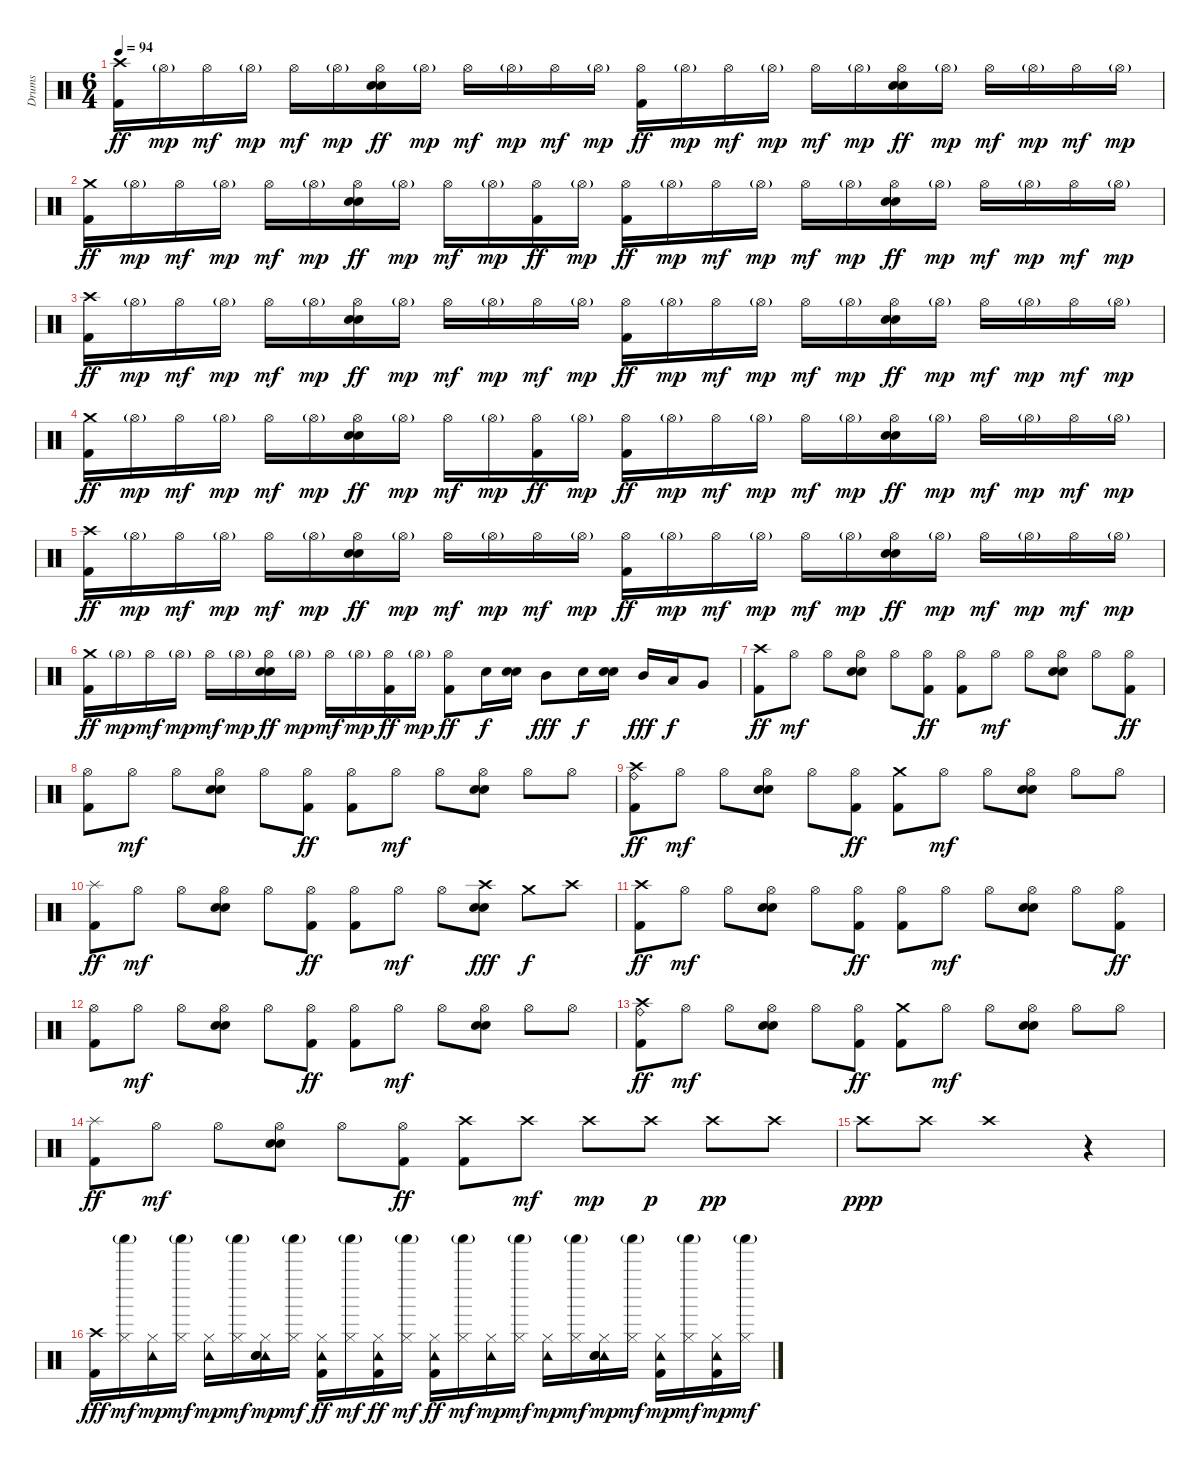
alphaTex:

\track ("Drums" "Drums") {instrument percussion}
\staff {score}
\articulation defaults
\ts (6 4)
\tempo 94
\clef neutral
\ks c
("Crash high (hit)" "Kick (hit) 2").16{dy ff} "Hi-Hat (open)"{g}.16{dy mp} "Hi-Hat (open)".16{dy mf} "Hi-Hat (open)"{g}.16{dy mp} "Hi-Hat (open)".16{dy mf} "Hi-Hat (open)"{g}.16{dy mp} ("Hi-Hat (open)" "Electric Snare (hit)" "Metronome (bell)").16{dy ff} "Hi-Hat (open)"{g}.16{dy mp} "Hi-Hat (open)".16{dy mf} "Hi-Hat (open)"{g}.16{dy mp} "Hi-Hat (open)".16{dy mf} "Hi-Hat (open)"{g}.16{dy mp} ("Hi-Hat (open)" "Kick (hit) 2").16{dy ff} "Hi-Hat (open)"{g}.16{dy mp} "Hi-Hat (open)".16{dy mf} "Hi-Hat (open)"{g}.16{dy mp} "Hi-Hat (open)".16{dy mf} "Hi-Hat (open)"{g}.16{dy mp} ("Hi-Hat (open)" "Electric Snare (hit)" "Metronome (bell)").16{dy ff} "Hi-Hat (open)"{g}.16{dy mp} "Hi-Hat (open)".16{dy mf} "Hi-Hat (open)"{g}.16{dy mp} "Hi-Hat (open)".16{dy mf} "Hi-Hat (open)"{g}.16{dy mp} |
("Crash medium (hit)" "Kick (hit) 2").16{dy ff} "Hi-Hat (open)"{g}.16{dy mp} "Hi-Hat (open)".16{dy mf} "Hi-Hat (open)"{g}.16{dy mp} "Hi-Hat (open)".16{dy mf} "Hi-Hat (open)"{g}.16{dy mp} ("Hi-Hat (open)" "Electric Snare (hit)" "Metronome (bell)").16{dy ff} "Hi-Hat (open)"{g}.16{dy mp} "Hi-Hat (open)".16{dy mf} "Hi-Hat (open)"{g}.16{dy mp} ("Hi-Hat (open)" "Kick (hit) 2").16{dy ff} "Hi-Hat (open)"{g}.16{dy mp} ("Hi-Hat (open)" "Kick (hit) 2").16{dy ff} "Hi-Hat (open)"{g}.16{dy mp} "Hi-Hat (open)".16{dy mf} "Hi-Hat (open)"{g}.16{dy mp} "Hi-Hat (open)".16{dy mf} "Hi-Hat (open)"{g}.16{dy mp} ("Hi-Hat (open)" "Electric Snare (hit)" "Metronome (bell)").16{dy ff} "Hi-Hat (open)"{g}.16{dy mp} "Hi-Hat (open)".16{dy mf} "Hi-Hat (open)"{g}.16{dy mp} "Hi-Hat (open)".16{dy mf} "Hi-Hat (open)"{g}.16{dy mp} |
("Crash high (hit)" "Kick (hit) 2").16{dy ff} "Hi-Hat (open)"{g}.16{dy mp} "Hi-Hat (open)".16{dy mf} "Hi-Hat (open)"{g}.16{dy mp} "Hi-Hat (open)".16{dy mf} "Hi-Hat (open)"{g}.16{dy mp} ("Hi-Hat (open)" "Electric Snare (hit)" "Metronome (bell)").16{dy ff} "Hi-Hat (open)"{g}.16{dy mp} "Hi-Hat (open)".16{dy mf} "Hi-Hat (open)"{g}.16{dy mp} "Hi-Hat (open)".16{dy mf} "Hi-Hat (open)"{g}.16{dy mp} ("Hi-Hat (open)" "Kick (hit) 2").16{dy ff} "Hi-Hat (open)"{g}.16{dy mp} "Hi-Hat (open)".16{dy mf} "Hi-Hat (open)"{g}.16{dy mp} "Hi-Hat (open)".16{dy mf} "Hi-Hat (open)"{g}.16{dy mp} ("Hi-Hat (open)" "Electric Snare (hit)" "Metronome (bell)").16{dy ff} "Hi-Hat (open)"{g}.16{dy mp} "Hi-Hat (open)".16{dy mf} "Hi-Hat (open)"{g}.16{dy mp} "Hi-Hat (open)".16{dy mf} "Hi-Hat (open)"{g}.16{dy mp} |
("Crash medium (hit)" "Kick (hit) 2").16{dy ff} "Hi-Hat (open)"{g}.16{dy mp} "Hi-Hat (open)".16{dy mf} "Hi-Hat (open)"{g}.16{dy mp} "Hi-Hat (open)".16{dy mf} "Hi-Hat (open)"{g}.16{dy mp} ("Hi-Hat (open)" "Electric Snare (hit)" "Metronome (bell)").16{dy ff} "Hi-Hat (open)"{g}.16{dy mp} "Hi-Hat (open)".16{dy mf} "Hi-Hat (open)"{g}.16{dy mp} ("Hi-Hat (open)" "Kick (hit) 2").16{dy ff} "Hi-Hat (open)"{g}.16{dy mp} ("Hi-Hat (open)" "Kick (hit) 2").16{dy ff} "Hi-Hat (open)"{g}.16{dy mp} "Hi-Hat (open)".16{dy mf} "Hi-Hat (open)"{g}.16{dy mp} "Hi-Hat (open)".16{dy mf} "Hi-Hat (open)"{g}.16{dy mp} ("Hi-Hat (open)" "Electric Snare (hit)" "Metronome (bell)").16{dy ff} "Hi-Hat (open)"{g}.16{dy mp} "Hi-Hat (open)".16{dy mf} "Hi-Hat (open)"{g}.16{dy mp} "Hi-Hat (open)".16{dy mf} "Hi-Hat (open)"{g}.16{dy mp} |
("Crash high (hit)" "Kick (hit) 2").16{dy ff} "Hi-Hat (open)"{g}.16{dy mp} "Hi-Hat (open)".16{dy mf} "Hi-Hat (open)"{g}.16{dy mp} "Hi-Hat (open)".16{dy mf} "Hi-Hat (open)"{g}.16{dy mp} ("Hi-Hat (open)" "Electric Snare (hit)" "Metronome (bell)").16{dy ff} "Hi-Hat (open)"{g}.16{dy mp} "Hi-Hat (open)".16{dy mf} "Hi-Hat (open)"{g}.16{dy mp} "Hi-Hat (open)".16{dy mf} "Hi-Hat (open)"{g}.16{dy mp} ("Hi-Hat (open)" "Kick (hit) 2").16{dy ff} "Hi-Hat (open)"{g}.16{dy mp} "Hi-Hat (open)".16{dy mf} "Hi-Hat (open)"{g}.16{dy mp} "Hi-Hat (open)".16{dy mf} "Hi-Hat (open)"{g}.16{dy mp} ("Hi-Hat (open)" "Electric Snare (hit)" "Metronome (bell)").16{dy ff} "Hi-Hat (open)"{g}.16{dy mp} "Hi-Hat (open)".16{dy mf} "Hi-Hat (open)"{g}.16{dy mp} "Hi-Hat (open)".16{dy mf} "Hi-Hat (open)"{g}.16{dy mp} |
("Crash medium (hit)" "Kick (hit) 2").16{dy ff} "Hi-Hat (open)"{g}.16{dy mp} "Hi-Hat (open)".16{dy mf} "Hi-Hat (open)"{g}.16{dy mp} "Hi-Hat (open)".16{dy mf} "Hi-Hat (open)"{g}.16{dy mp} ("Hi-Hat (open)" "Electric Snare (hit)" "Metronome (bell)").16{dy ff} "Hi-Hat (open)"{g}.16{dy mp} "Hi-Hat (open)".16{dy mf} "Hi-Hat (open)"{g}.16{dy mp} ("Hi-Hat (open)" "Kick (hit) 2").16{dy ff} "Hi-Hat (open)"{g}.16{dy mp} ("Hi-Hat (open)" "Kick (hit) 2").8{dy ff} "Electric Snare (hit)".16{dy f} ("Electric Snare (hit)" "Metronome (bell)").16 "Mid Tom (hit)".8{dy fff} "Electric Snare (hit)".16{dy f} ("Electric Snare (hit)" "Metronome (bell)").16 "Mid Tom (hit)".16{dy fff} "Low Tom (hit)".16{dy f} "Very Low Tom (hit)".8 |
("Crash high (hit)" "Kick (hit) 2").8{dy ff} "Hi-Hat (open)".8{dy mf} "Hi-Hat (open)".8 ("Hi-Hat (open)" "Electric Snare (hit)" "Metronome (bell)").8 "Hi-Hat (open)".8 ("Hi-Hat (open)" "Kick (hit) 2").8{dy ff} ("Hi-Hat (open)" "Kick (hit) 2").8 "Hi-Hat (open)".8{dy mf} "Hi-Hat (open)".8 ("Hi-Hat (open)" "Electric Snare (hit)" "Metronome (bell)").8 "Hi-Hat (open)".8 ("Hi-Hat (open)" "Kick (hit) 2").8{dy ff} |
("Hi-Hat (open)" "Kick (hit) 2").8 "Hi-Hat (open)".8{dy mf} "Hi-Hat (open)".8 ("Hi-Hat (open)" "Electric Snare (hit)" "Metronome (bell)").8 "Hi-Hat (open)".8 ("Hi-Hat (open)" "Kick (hit) 2").8{dy ff} ("Hi-Hat (open)" "Kick (hit) 2").8 "Hi-Hat (open)".8{dy mf} "Hi-Hat (open)".8 ("Hi-Hat (open)" "Electric Snare (hit)" "Metronome (bell)").8 "Hi-Hat (open)".8 "Hi-Hat (open)".8 |
("Crash high (hit)" "Ride (bell)" "Kick (hit) 2").8{dy ff} "Hi-Hat (open)".8{dy mf} "Hi-Hat (open)".8 ("Hi-Hat (open)" "Electric Snare (hit)" "Metronome (bell)").8 "Hi-Hat (open)".8 ("Hi-Hat (open)" "Kick (hit) 2").8{dy ff} ("Crash medium (hit)" "Kick (hit) 2").8 "Hi-Hat (open)".8{dy mf} "Hi-Hat (open)".8 ("Hi-Hat (open)" "Electric Snare (hit)" "Metronome (bell)").8 "Hi-Hat (open)".8 "Hi-Hat (open)".8 |
("Splash (hit)" "Kick (hit) 2").8{dy ff} "Hi-Hat (open)".8{dy mf} "Hi-Hat (open)".8 ("Hi-Hat (open)" "Electric Snare (hit)" "Metronome (bell)").8 "Hi-Hat (open)".8 ("Hi-Hat (open)" "Kick (hit) 2").8{dy ff} ("Hi-Hat (open)" "Kick (hit) 2").8 "Hi-Hat (open)".8{dy mf} "Hi-Hat (open)".8 ("Crash high (hit)" "Electric Snare (hit)" "Metronome (bell)").8{dy fff} "Crash medium (hit)".8{dy f} "Crash high (hit)".8 |
("Crash high (hit)" "Kick (hit) 2").8{dy ff} "Hi-Hat (open)".8{dy mf} "Hi-Hat (open)".8 ("Hi-Hat (open)" "Electric Snare (hit)" "Metronome (bell)").8 "Hi-Hat (open)".8 ("Hi-Hat (open)" "Kick (hit) 2").8{dy ff} ("Hi-Hat (open)" "Kick (hit) 2").8 "Hi-Hat (open)".8{dy mf} "Hi-Hat (open)".8 ("Hi-Hat (open)" "Electric Snare (hit)" "Metronome (bell)").8 "Hi-Hat (open)".8 ("Hi-Hat (open)" "Kick (hit) 2").8{dy ff} |
("Hi-Hat (open)" "Kick (hit) 2").8 "Hi-Hat (open)".8{dy mf} "Hi-Hat (open)".8 ("Hi-Hat (open)" "Electric Snare (hit)" "Metronome (bell)").8 "Hi-Hat (open)".8 ("Hi-Hat (open)" "Kick (hit) 2").8{dy ff} ("Hi-Hat (open)" "Kick (hit) 2").8 "Hi-Hat (open)".8{dy mf} "Hi-Hat (open)".8 ("Hi-Hat (open)" "Electric Snare (hit)" "Metronome (bell)").8 "Hi-Hat (open)".8 "Hi-Hat (open)".8 |
("Crash high (hit)" "Ride (bell)" "Kick (hit) 2").8{dy ff} "Hi-Hat (open)".8{dy mf} "Hi-Hat (open)".8 ("Hi-Hat (open)" "Electric Snare (hit)" "Metronome (bell)").8 "Hi-Hat (open)".8 ("Hi-Hat (open)" "Kick (hit) 2").8{dy ff} ("Crash medium (hit)" "Kick (hit) 2").8 "Hi-Hat (open)".8{dy mf} "Hi-Hat (open)".8 ("Hi-Hat (open)" "Electric Snare (hit)" "Metronome (bell)").8 "Hi-Hat (open)".8 "Hi-Hat (open)".8 |
("Splash (hit)" "Kick (hit) 2").8{dy ff} "Hi-Hat (open)".8{dy mf} "Hi-Hat (open)".8 ("Hi-Hat (open)" "Electric Snare (hit)" "Metronome (bell)").8 "Hi-Hat (open)".8 ("Hi-Hat (open)" "Kick (hit) 2").8{dy ff} ("Crash high (hit)" "Kick (hit) 2").8 "Crash high (hit)".8{dy mf} "Crash high (hit)".8{dy mp} "Crash high (hit)".8{dy p} "Crash high (hit)".8{dy pp} "Crash high (hit)".8 |
"Crash high (hit)".8{dy ppp} "Crash high (hit)".8 "Crash high (hit)".1 r.4 |
("Crash high (hit)" "Kick (hit) 2").16{dy fff} ("Shaker (hit)"{g} "Hi-Hat (closed)").16{dy mf} ("Hi-Hat (closed)" "Tambourine (hit)").16{dy mp} ("Shaker (hit)"{g} "Hi-Hat (closed)").16{dy mf} ("Hi-Hat (closed)" "Tambourine (hit)").16{dy mp} ("Shaker (hit)"{g} "Hi-Hat (closed)").16{dy mf} ("Hi-Hat (closed)" "Tambourine (hit)" "Electric Snare (hit)" "Metronome (bell)").16{dy mp} ("Shaker (hit)"{g} "Hi-Hat (closed)").16{dy mf} ("Hi-Hat (closed)" "Tambourine (hit)" "Kick (hit) 2").16{dy ff} ("Shaker (hit)"{g} "Hi-Hat (closed)").16{dy mf} ("Hi-Hat (closed)" "Tambourine (hit)" "Kick (hit) 2").16{dy ff} ("Shaker (hit)"{g} "Hi-Hat (closed)").16{dy mf} ("Hi-Hat (closed)" "Tambourine (hit)" "Kick (hit) 2").16{dy ff} ("Shaker (hit)"{g} "Hi-Hat (closed)").16{dy mf} ("Hi-Hat (closed)" "Tambourine (hit)").16{dy mp} ("Shaker (hit)"{g} "Hi-Hat (closed)").16{dy mf} ("Hi-Hat (closed)" "Tambourine (hit)").16{dy mp} ("Shaker (hit)"{g} "Hi-Hat (closed)").16{dy mf} ("Hi-Hat (closed)" "Tambourine (hit)" "Electric Snare (hit)" "Metronome (bell)").16{dy mp} ("Shaker (hit)"{g} "Hi-Hat (closed)").16{dy mf} ("Hi-Hat (closed)" "Tambourine (hit)" "Kick (hit) 2").16{dy mp} ("Shaker (hit)"{g} "Hi-Hat (closed)").16{dy mf} ("Hi-Hat (closed)" "Tambourine (hit)" "Kick (hit) 2").16{dy mp} ("Shaker (hit)"{g} "Hi-Hat (closed)").16{dy mf}
